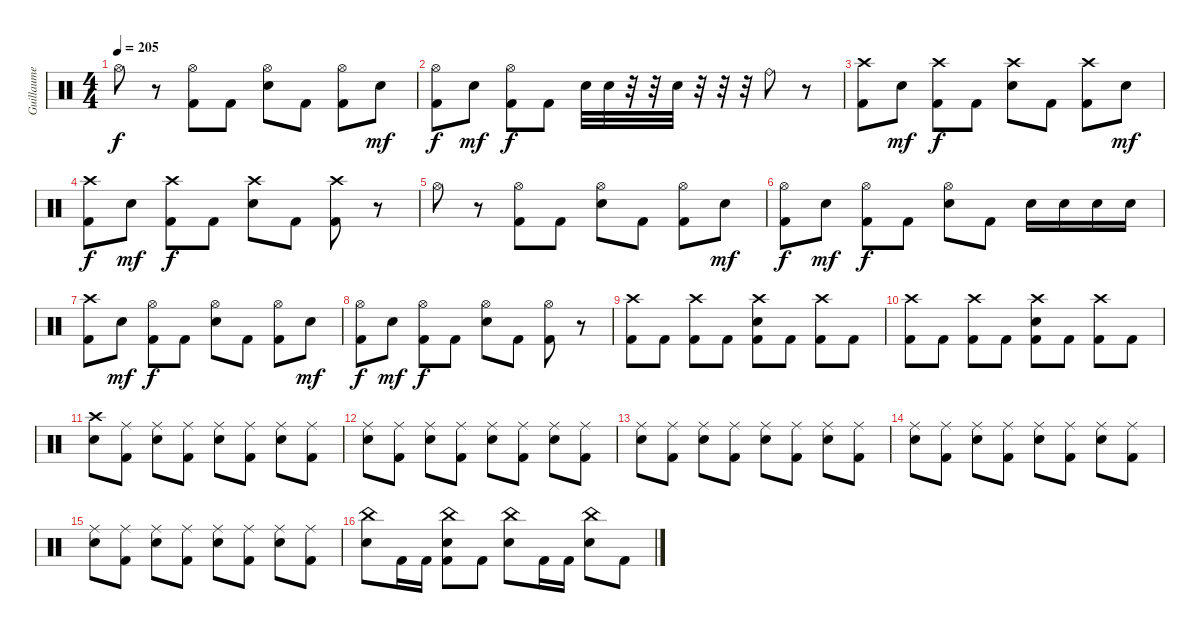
\track ("Guillaume" "Guillaume") {instrument percussion}
\staff {score}
\articulation defaults
\ts (4 4)
\tempo 205
\clef neutral
\ks c "Hi-Hat (open)".8{dy f}
r.8 ("Hi-Hat (open)" "Kick (hit) 2").8 "Kick (hit) 2".8 ("Hi-Hat (open)" "Snare (hit) 2").8 "Kick (hit) 2".8 ("Hi-Hat (open)" "Kick (hit) 2").8 "Snare (hit) 2".8{dy mf} |
("Hi-Hat (open)" "Kick (hit) 2").8{dy f} "Snare (hit) 2".8{dy mf} ("Hi-Hat (open)" "Kick (hit) 2").8{dy f} "Kick (hit) 2".8 "Snare (hit) 2".32 "Snare (hit) 2".32 r.32 r.32 "Snare (hit) 2".32 r.32 r.32 r.32 "Ride (bell)".8 r.8 |
("Crash high (hit)" "Kick (hit) 2").8 "Snare (hit) 2".8{dy mf} ("Crash high (hit)" "Kick (hit) 2").8{dy f} "Kick (hit) 2".8 ("Crash high (hit)" "Snare (hit) 2").8 "Kick (hit) 2".8 ("Crash high (hit)" "Kick (hit) 2").8 "Snare (hit) 2".8{dy mf} |
("Crash high (hit)" "Kick (hit) 2").8{dy f} "Snare (hit) 2".8{dy mf} ("Crash high (hit)" "Kick (hit) 2").8{dy f} "Kick (hit) 2".8 ("Crash high (hit)" "Snare (hit) 2").8 "Kick (hit) 2".8 ("Crash high (hit)" "Kick (hit) 2").8 r.8 |
"Hi-Hat (open)".8 r.8 ("Hi-Hat (open)" "Kick (hit) 2").8 "Kick (hit) 2".8 ("Hi-Hat (open)" "Snare (hit) 2").8 "Kick (hit) 2".8 ("Hi-Hat (open)" "Kick (hit) 2").8 "Snare (hit) 2".8{dy mf} |
("Hi-Hat (open)" "Kick (hit) 2").8{dy f} "Snare (hit) 2".8{dy mf} ("Hi-Hat (open)" "Kick (hit) 2").8{dy f} "Kick (hit) 2".8 ("Hi-Hat (open)" "Snare (hit) 2").8 "Kick (hit) 2".8 "Snare (hit) 2".16 "Snare (hit) 2".16 "Snare (hit) 2".16 "Snare (hit) 2".16 |
("Crash high (hit)" "Kick (hit) 2").8 "Snare (hit) 2".8{dy mf} ("Hi-Hat (open)" "Kick (hit) 2").8{dy f} "Kick (hit) 2".8 ("Hi-Hat (open)" "Snare (hit) 2").8 "Kick (hit) 2".8 ("Hi-Hat (open)" "Kick (hit) 2").8 "Snare (hit) 2".8{dy mf} |
("Hi-Hat (open)" "Kick (hit) 2").8{dy f} "Snare (hit) 2".8{dy mf} ("Hi-Hat (open)" "Kick (hit) 2").8{dy f} "Kick (hit) 2".8 ("Hi-Hat (open)" "Snare (hit) 2").8 "Kick (hit) 2".8 ("Hi-Hat (open)" "Kick (hit) 2").8 r.8 |
("Crash high (hit)" "Kick (hit) 2").8 "Kick (hit) 2".8 ("Crash high (hit)" "Kick (hit) 2").8 "Kick (hit) 2".8 ("Crash high (hit)" "Snare (hit) 2" "Kick (hit) 2").8 "Kick (hit) 2".8 ("Crash high (hit)" "Kick (hit) 2").8 "Kick (hit) 2".8 |
("Crash high (hit)" "Kick (hit) 2").8 "Kick (hit) 2".8 ("Crash high (hit)" "Kick (hit) 2").8 "Kick (hit) 2".8 ("Crash high (hit)" "Snare (hit) 2" "Kick (hit) 2").8 "Kick (hit) 2".8 ("Crash high (hit)" "Kick (hit) 2").8 "Kick (hit) 2".8 |
("Crash high (hit)" "Snare (hit) 2").8 ("Ride (middle)" "Kick (hit) 2").8 ("Ride (middle)" "Snare (hit) 2").8 ("Ride (middle)" "Kick (hit) 2").8 ("Ride (middle)" "Snare (hit) 2").8 ("Ride (middle)" "Kick (hit) 2").8 ("Ride (middle)" "Snare (hit) 2").8 ("Ride (middle)" "Kick (hit) 2").8 |
("Ride (middle)" "Snare (hit) 2").8 ("Ride (middle)" "Kick (hit) 2").8 ("Ride (middle)" "Snare (hit) 2").8 ("Ride (middle)" "Kick (hit) 2").8 ("Ride (middle)" "Snare (hit) 2").8 ("Ride (middle)" "Kick (hit) 2").8 ("Ride (middle)" "Snare (hit) 2").8 ("Ride (middle)" "Kick (hit) 2").8 |
("Ride (middle)" "Snare (hit) 2").8 ("Ride (middle)" "Kick (hit) 2").8 ("Ride (middle)" "Snare (hit) 2").8 ("Ride (middle)" "Kick (hit) 2").8 ("Ride (middle)" "Snare (hit) 2").8 ("Ride (middle)" "Kick (hit) 2").8 ("Ride (middle)" "Snare (hit) 2").8 ("Ride (middle)" "Kick (hit) 2").8 |
("Ride (middle)" "Snare (hit) 2").8 ("Ride (middle)" "Kick (hit) 2").8 ("Ride (middle)" "Snare (hit) 2").8 ("Ride (middle)" "Kick (hit) 2").8 ("Ride (middle)" "Snare (hit) 2").8 ("Ride (middle)" "Kick (hit) 2").8 ("Ride (middle)" "Snare (hit) 2").8 ("Ride (middle)" "Kick (hit) 2").8 |
("Ride (middle)" "Snare (hit) 2").8 ("Ride (middle)" "Kick (hit) 2").8 ("Ride (middle)" "Snare (hit) 2").8 ("Ride (middle)" "Kick (hit) 2").8 ("Ride (middle)" "Snare (hit) 2").8 ("Ride (middle)" "Kick (hit) 2").8 ("Ride (middle)" "Snare (hit) 2").8 ("Ride (middle)" "Kick (hit) 2").8 |
("China (hit)" "Snare (hit) 2").8 "Kick (hit) 2".16 "Kick (hit) 2".16 ("China (hit)" "Snare (hit) 2" "Kick (hit) 2").8 "Kick (hit) 2".8 ("China (hit)" "Snare (hit) 2").8 "Kick (hit) 2".16 "Kick (hit) 2".16 ("China (hit)" "Snare (hit) 2").8 "Kick (hit) 2".8
